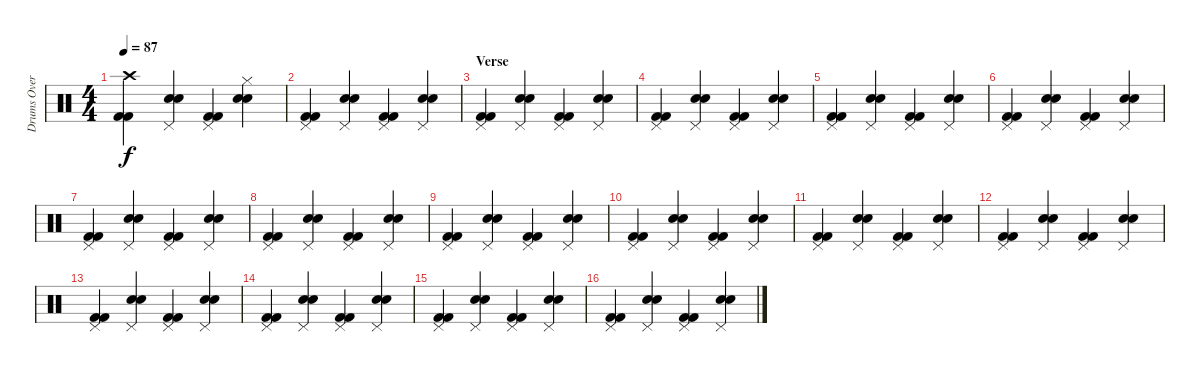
\track ("Drums Overdub" "Drums Over") {instrument percussion}
\staff {score}
\articulation defaults
\ts (4 4)
\tempo 87
\clef neutral
\ks c
("Crash high (hit)" "Kick (hit) 2" "Kick (hit) 2").4{dy f} ("Snare (hit) 2" "Snare (hit) 2" "Pedal Hi-Hat (hit)").4 ("Pedal Hi-Hat (hit)" "Kick (hit) 2" "Kick (hit) 2").4 ("Snare (hit) 2" "Snare (hit) 2" "Hi-Hat (closed)").4 |
("Pedal Hi-Hat (hit)" "Kick (hit) 2" "Kick (hit) 2").4 ("Snare (hit) 2" "Snare (hit) 2" "Pedal Hi-Hat (hit)").4 ("Pedal Hi-Hat (hit)" "Kick (hit) 2" "Kick (hit) 2").4 ("Snare (hit) 2" "Snare (hit) 2" "Pedal Hi-Hat (hit)").4 |
\section ("" "Verse")
("Pedal Hi-Hat (hit)" "Kick (hit) 2" "Kick (hit) 2").4 ("Snare (hit) 2" "Snare (hit) 2" "Pedal Hi-Hat (hit)").4 ("Pedal Hi-Hat (hit)" "Kick (hit) 2" "Kick (hit) 2").4 ("Snare (hit) 2" "Snare (hit) 2" "Pedal Hi-Hat (hit)").4 |
("Pedal Hi-Hat (hit)" "Kick (hit) 2" "Kick (hit) 2").4 ("Snare (hit) 2" "Snare (hit) 2" "Pedal Hi-Hat (hit)").4 ("Pedal Hi-Hat (hit)" "Kick (hit) 2" "Kick (hit) 2").4 ("Snare (hit) 2" "Snare (hit) 2" "Pedal Hi-Hat (hit)").4 |
("Pedal Hi-Hat (hit)" "Kick (hit) 2" "Kick (hit) 2").4 ("Snare (hit) 2" "Snare (hit) 2" "Pedal Hi-Hat (hit)").4 ("Pedal Hi-Hat (hit)" "Kick (hit) 2" "Kick (hit) 2").4 ("Snare (hit) 2" "Snare (hit) 2" "Pedal Hi-Hat (hit)").4 |
("Pedal Hi-Hat (hit)" "Kick (hit) 2" "Kick (hit) 2").4 ("Snare (hit) 2" "Snare (hit) 2" "Pedal Hi-Hat (hit)").4 ("Pedal Hi-Hat (hit)" "Kick (hit) 2" "Kick (hit) 2").4 ("Snare (hit) 2" "Snare (hit) 2" "Pedal Hi-Hat (hit)").4 |
("Pedal Hi-Hat (hit)" "Kick (hit) 2" "Kick (hit) 2").4 ("Snare (hit) 2" "Snare (hit) 2" "Pedal Hi-Hat (hit)").4 ("Pedal Hi-Hat (hit)" "Kick (hit) 2" "Kick (hit) 2").4 ("Snare (hit) 2" "Snare (hit) 2" "Pedal Hi-Hat (hit)").4 |
("Pedal Hi-Hat (hit)" "Kick (hit) 2" "Kick (hit) 2").4 ("Snare (hit) 2" "Snare (hit) 2" "Pedal Hi-Hat (hit)").4 ("Pedal Hi-Hat (hit)" "Kick (hit) 2" "Kick (hit) 2").4 ("Snare (hit) 2" "Snare (hit) 2" "Pedal Hi-Hat (hit)").4 |
("Pedal Hi-Hat (hit)" "Kick (hit) 2" "Kick (hit) 2").4 ("Snare (hit) 2" "Snare (hit) 2" "Pedal Hi-Hat (hit)").4 ("Pedal Hi-Hat (hit)" "Kick (hit) 2" "Kick (hit) 2").4 ("Snare (hit) 2" "Snare (hit) 2" "Pedal Hi-Hat (hit)").4 |
("Pedal Hi-Hat (hit)" "Kick (hit) 2" "Kick (hit) 2").4 ("Snare (hit) 2" "Snare (hit) 2" "Pedal Hi-Hat (hit)").4 ("Pedal Hi-Hat (hit)" "Kick (hit) 2" "Kick (hit) 2").4 ("Snare (hit) 2" "Snare (hit) 2" "Pedal Hi-Hat (hit)").4 |
("Pedal Hi-Hat (hit)" "Kick (hit) 2" "Kick (hit) 2").4 ("Snare (hit) 2" "Snare (hit) 2" "Pedal Hi-Hat (hit)").4 ("Pedal Hi-Hat (hit)" "Kick (hit) 2" "Kick (hit) 2").4 ("Snare (hit) 2" "Snare (hit) 2" "Pedal Hi-Hat (hit)").4 |
("Pedal Hi-Hat (hit)" "Kick (hit) 2" "Kick (hit) 2").4 ("Snare (hit) 2" "Snare (hit) 2" "Pedal Hi-Hat (hit)").4 ("Pedal Hi-Hat (hit)" "Kick (hit) 2" "Kick (hit) 2").4 ("Snare (hit) 2" "Snare (hit) 2" "Pedal Hi-Hat (hit)").4 |
("Pedal Hi-Hat (hit)" "Kick (hit) 2" "Kick (hit) 2").4 ("Snare (hit) 2" "Snare (hit) 2" "Pedal Hi-Hat (hit)").4 ("Pedal Hi-Hat (hit)" "Kick (hit) 2" "Kick (hit) 2").4 ("Snare (hit) 2" "Snare (hit) 2" "Pedal Hi-Hat (hit)").4 |
("Pedal Hi-Hat (hit)" "Kick (hit) 2" "Kick (hit) 2").4 ("Snare (hit) 2" "Snare (hit) 2" "Pedal Hi-Hat (hit)").4 ("Pedal Hi-Hat (hit)" "Kick (hit) 2" "Kick (hit) 2").4 ("Snare (hit) 2" "Snare (hit) 2" "Pedal Hi-Hat (hit)").4 |
("Pedal Hi-Hat (hit)" "Kick (hit) 2" "Kick (hit) 2").4 ("Snare (hit) 2" "Snare (hit) 2" "Pedal Hi-Hat (hit)").4 ("Pedal Hi-Hat (hit)" "Kick (hit) 2" "Kick (hit) 2").4 ("Snare (hit) 2" "Snare (hit) 2" "Pedal Hi-Hat (hit)").4 |
("Pedal Hi-Hat (hit)" "Kick (hit) 2" "Kick (hit) 2").4 ("Snare (hit) 2" "Snare (hit) 2" "Pedal Hi-Hat (hit)").4 ("Pedal Hi-Hat (hit)" "Kick (hit) 2" "Kick (hit) 2").4 ("Snare (hit) 2" "Snare (hit) 2" "Pedal Hi-Hat (hit)").4
